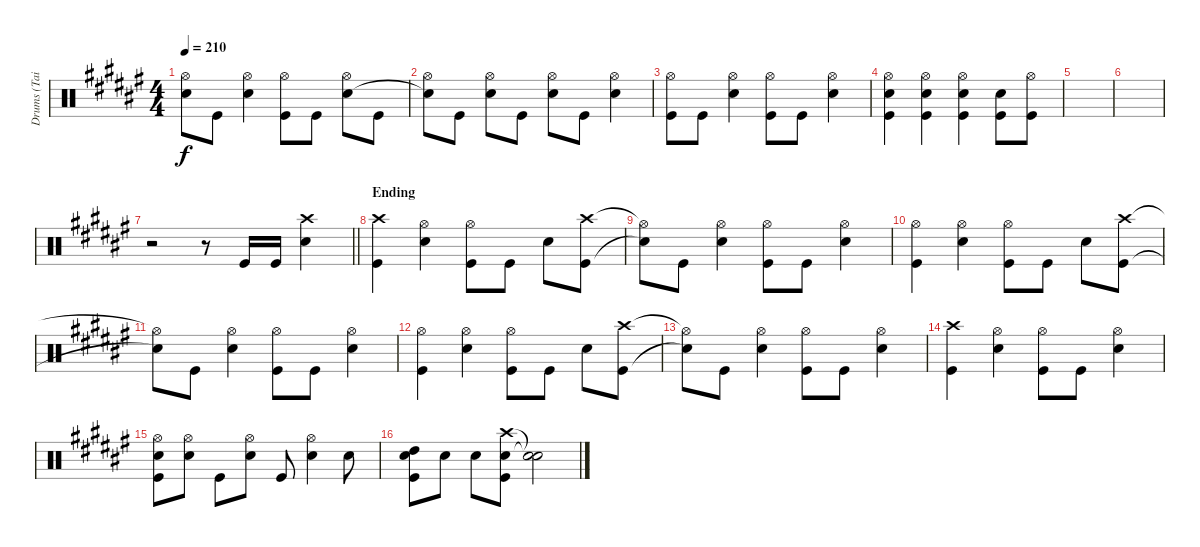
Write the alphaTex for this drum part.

\track ("Drums (Tainaka Ritsu)" "Drums (Tai") {instrument percussion}
\staff {score}
\articulation defaults
\ts (4 4)
\tempo 210
\clef neutral
\ks f#
("Hi-Hat (open)" "Snare (hit)"{t}).8{dy f} "Kick (hit)".8 ("Hi-Hat (open)" "Snare (hit) 2").4 ("Hi-Hat (open)" "Kick (hit)").8 "Kick (hit)".8 ("Hi-Hat (open)" "Snare (hit) 2").8 "Kick (hit)".8 |
("Hi-Hat (open)" "Snare (hit)"{t}).8 "Kick (hit)".8 ("Hi-Hat (open)" "Snare (hit) 2").8 "Kick (hit)".8 ("Hi-Hat (open)" "Snare (hit) 2").8 "Kick (hit)".8 ("Hi-Hat (open)" "Snare (hit) 2").4 |
("Hi-Hat (open)" "Kick (hit)").8 "Kick (hit)".8 ("Hi-Hat (open)" "Snare (hit) 2").4 ("Hi-Hat (open)" "Kick (hit)").8 "Kick (hit)".8 ("Hi-Hat (open)" "Snare (hit) 2").4 |
("Hi-Hat (open)" "Snare (hit) 2" "Kick (hit)").4 ("Hi-Hat (open)" "Snare (hit) 2" "Kick (hit)").4 ("Hi-Hat (open)" "Snare (hit) 2" "Kick (hit)").4 ("Snare (hit) 2" "Kick (hit)").8 ("Hi-Hat (open)" "Kick (hit)").8 |
|
|
\barLineRight lightlight
r.2 r.8 "Kick (hit)".16 "Kick (hit)".16 ("Crash high (hit)" "Snare (hit) 2").4 |
\section ("" "Ending")
("Crash high (hit)" "Kick (hit)").4 ("Hi-Hat (open)" "Snare (hit) 2").4 ("Hi-Hat (open)" "Kick (hit)").8 "Kick (hit)".8 "Snare (hit) 2".8 ("Crash high (hit)" "Kick (hit)").8 |
("Hi-Hat (open)"{t} "Snare (hit)"{t}).8 "Kick (hit)".8 ("Hi-Hat (open)" "Snare (hit) 2").4 ("Hi-Hat (open)" "Kick (hit)").8 "Kick (hit)".8 ("Hi-Hat (open)" "Snare (hit) 2").4 |
("Hi-Hat (open)" "Kick (hit)").4 ("Hi-Hat (open)" "Snare (hit) 2").4 ("Hi-Hat (open)" "Kick (hit)").8 "Kick (hit)".8 "Snare (hit) 2".8 ("Crash high (hit)" "Kick (hit)").8 |
("Hi-Hat (open)"{t} "Snare (hit)"{t}).8 "Kick (hit)".8 ("Hi-Hat (open)" "Snare (hit) 2").4 ("Hi-Hat (open)" "Kick (hit)").8 "Kick (hit)".8 ("Hi-Hat (open)" "Snare (hit) 2").4 |
("Hi-Hat (open)" "Kick (hit)").4 ("Hi-Hat (open)" "Snare (hit) 2").4 ("Hi-Hat (open)" "Kick (hit)").8 "Kick (hit)".8 "Snare (hit) 2".8 ("Crash high (hit)" "Kick (hit)").8 |
("Hi-Hat (open)"{t} "Snare (hit)"{t}).8 "Kick (hit)".8 ("Hi-Hat (open)" "Snare (hit) 2").4 ("Hi-Hat (open)" "Kick (hit)").8 "Kick (hit)".8 ("Hi-Hat (open)" "Snare (hit) 2").4 |
("Crash high (hit)" "Kick (hit)").4 ("Hi-Hat (open)" "Snare (hit) 2").4 ("Hi-Hat (open)" "Kick (hit)").8 "Kick (hit)".8 ("Hi-Hat (open)" "Snare (hit) 2").4 |
("Hi-Hat (open)" "Snare (hit) 2" "Kick (hit)").8 ("Hi-Hat (open)" "Snare (hit) 2").8 "Kick (hit)".8 ("Hi-Hat (open)" "Snare (hit) 2").8 "Kick (hit)".8 ("Hi-Hat (open)" "Snare (hit) 2").4 "Snare (hit) 2".8 |
("Snare (hit) 2" "High Tom (hit)" "Kick (hit)").8 "Snare (hit) 2".8 "Snare (hit) 2".8 ("Crash high (hit)" "Snare (hit) 2" "Kick (hit)").8 ("Snare (hit)"{t} "Snare (hit)"{t}).2
